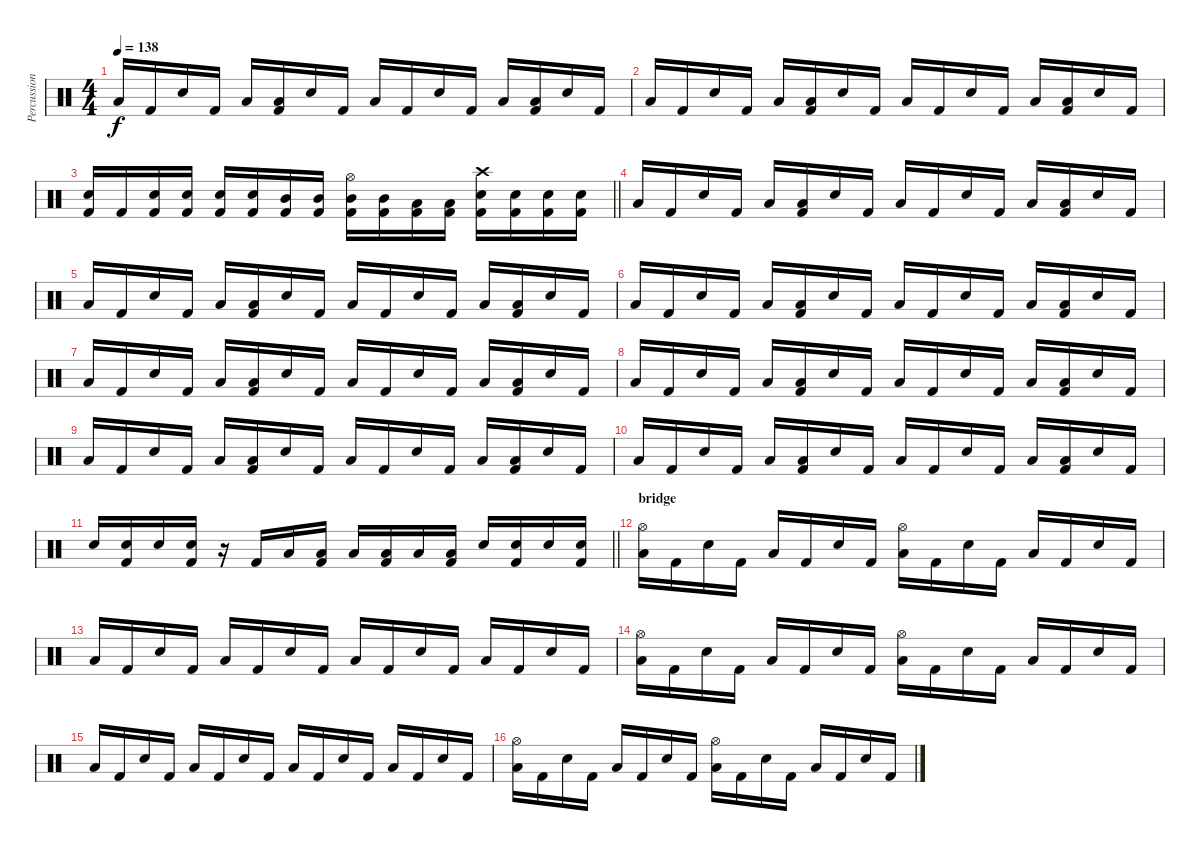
\track ("Percussion" "Percussion") {instrument percussion}
\staff {score}
\articulation defaults
\ts (4 4)
\tempo 138
\clef neutral
\ks c "Low Tom (hit)".16{dy f} "Kick (hit) 2".16 "Snare (hit) 2".16 "Kick (hit) 2".16 "Low Tom (hit)".16
("Low Tom (hit)" "Kick (hit) 2").16 "Snare (hit) 2".16 "Kick (hit) 2".16 "Low Tom (hit)".16 "Kick (hit) 2".16 "Snare (hit) 2".16 "Kick (hit) 2".16 "Low Tom (hit)".16 ("Low Tom (hit)" "Kick (hit) 2").16 "Snare (hit) 2".16 "Kick (hit) 2".16 |
"Low Tom (hit)".16 "Kick (hit) 2".16 "Snare (hit) 2".16 "Kick (hit) 2".16 "Low Tom (hit)".16 ("Low Tom (hit)" "Kick (hit) 2").16 "Snare (hit) 2".16 "Kick (hit) 2".16 "Low Tom (hit)".16 "Kick (hit) 2".16 "Snare (hit) 2".16 "Kick (hit) 2".16 "Low Tom (hit)".16 ("Low Tom (hit)" "Kick (hit) 2").16 "Snare (hit) 2".16 "Kick (hit) 2".16 |
\barLineRight lightlight
("Snare (hit) 2" "Kick (hit) 2").16 "Kick (hit) 2".16 ("Snare (hit) 2" "Kick (hit) 2").16 ("Snare (hit) 2" "Kick (hit) 2").16 ("Snare (hit) 2" "Kick (hit) 2").16 ("Snare (hit) 2" "Kick (hit) 2").16 ("Mid Tom (hit)" "Kick (hit) 2").16 ("Mid Tom (hit)" "Kick (hit) 2").16 ("Hi-Hat (open)" "Mid Tom (hit)" "Kick (hit) 2").16 ("Mid Tom (hit)" "Kick (hit) 2").16 ("Low Tom (hit)" "Kick (hit) 2").16 ("Low Tom (hit)" "Kick (hit) 2").16 ("Crash high (hit)" "Snare (hit) 2" "Kick (hit) 2").16 ("Snare (hit) 2" "Kick (hit) 2").16 ("Snare (hit) 2" "Kick (hit) 2").16 ("Snare (hit) 2" "Kick (hit) 2").16 |
"Low Tom (hit)".16 "Kick (hit) 2".16 "Snare (hit) 2".16 "Kick (hit) 2".16 "Low Tom (hit)".16 ("Low Tom (hit)" "Kick (hit) 2").16 "Snare (hit) 2".16 "Kick (hit) 2".16 "Low Tom (hit)".16 "Kick (hit) 2".16 "Snare (hit) 2".16 "Kick (hit) 2".16 "Low Tom (hit)".16 ("Low Tom (hit)" "Kick (hit) 2").16 "Snare (hit) 2".16 "Kick (hit) 2".16 |
"Low Tom (hit)".16 "Kick (hit) 2".16 "Snare (hit) 2".16 "Kick (hit) 2".16 "Low Tom (hit)".16 ("Low Tom (hit)" "Kick (hit) 2").16 "Snare (hit) 2".16 "Kick (hit) 2".16 "Low Tom (hit)".16 "Kick (hit) 2".16 "Snare (hit) 2".16 "Kick (hit) 2".16 "Low Tom (hit)".16 ("Low Tom (hit)" "Kick (hit) 2").16 "Snare (hit) 2".16 "Kick (hit) 2".16 |
"Low Tom (hit)".16 "Kick (hit) 2".16 "Snare (hit) 2".16 "Kick (hit) 2".16 "Low Tom (hit)".16 ("Low Tom (hit)" "Kick (hit) 2").16 "Snare (hit) 2".16 "Kick (hit) 2".16 "Low Tom (hit)".16 "Kick (hit) 2".16 "Snare (hit) 2".16 "Kick (hit) 2".16 "Low Tom (hit)".16 ("Low Tom (hit)" "Kick (hit) 2").16 "Snare (hit) 2".16 "Kick (hit) 2".16 |
"Low Tom (hit)".16 "Kick (hit) 2".16 "Snare (hit) 2".16 "Kick (hit) 2".16 "Low Tom (hit)".16 ("Low Tom (hit)" "Kick (hit) 2").16 "Snare (hit) 2".16 "Kick (hit) 2".16 "Low Tom (hit)".16 "Kick (hit) 2".16 "Snare (hit) 2".16 "Kick (hit) 2".16 "Low Tom (hit)".16 ("Low Tom (hit)" "Kick (hit) 2").16 "Snare (hit) 2".16 "Kick (hit) 2".16 |
"Low Tom (hit)".16 "Kick (hit) 2".16 "Snare (hit) 2".16 "Kick (hit) 2".16 "Low Tom (hit)".16 ("Low Tom (hit)" "Kick (hit) 2").16 "Snare (hit) 2".16 "Kick (hit) 2".16 "Low Tom (hit)".16 "Kick (hit) 2".16 "Snare (hit) 2".16 "Kick (hit) 2".16 "Low Tom (hit)".16 ("Low Tom (hit)" "Kick (hit) 2").16 "Snare (hit) 2".16 "Kick (hit) 2".16 |
"Low Tom (hit)".16 "Kick (hit) 2".16 "Snare (hit) 2".16 "Kick (hit) 2".16 "Low Tom (hit)".16 ("Low Tom (hit)" "Kick (hit) 2").16 "Snare (hit) 2".16 "Kick (hit) 2".16 "Low Tom (hit)".16 "Kick (hit) 2".16 "Snare (hit) 2".16 "Kick (hit) 2".16 "Low Tom (hit)".16 ("Low Tom (hit)" "Kick (hit) 2").16 "Snare (hit) 2".16 "Kick (hit) 2".16 |
"Low Tom (hit)".16 "Kick (hit) 2".16 "Snare (hit) 2".16 "Kick (hit) 2".16 "Low Tom (hit)".16 ("Low Tom (hit)" "Kick (hit) 2").16 "Snare (hit) 2".16 "Kick (hit) 2".16 "Low Tom (hit)".16 "Kick (hit) 2".16 "Snare (hit) 2".16 "Kick (hit) 2".16 "Low Tom (hit)".16 ("Low Tom (hit)" "Kick (hit) 2").16 "Snare (hit) 2".16 "Kick (hit) 2".16 |
\barLineRight lightlight "Snare (hit) 2".16
("Snare (hit) 2" "Kick (hit) 2").16 "Snare (hit) 2".16 ("Snare (hit) 2" "Kick (hit) 2").16 r.16 "Kick (hit) 2".16 "Low Tom (hit)".16 ("Low Tom (hit)" "Kick (hit) 2").16 "Low Tom (hit)".16 ("Low Tom (hit)" "Kick (hit) 2").16 "Low Tom (hit)".16 ("Low Tom (hit)" "Kick (hit) 2").16 "Snare (hit) 2".16 ("Snare (hit) 2" "Kick (hit) 2").16 "Snare (hit) 2".16 ("Snare (hit) 2" "Kick (hit) 2").16 |
\section ("" "bridge")
("Hi-Hat (open)" "Low Tom (hit)").16 "Kick (hit) 2".16 "Snare (hit) 2".16 "Kick (hit) 2".16 "Low Tom (hit)".16 "Kick (hit) 2".16 "Snare (hit) 2".16 "Kick (hit) 2".16 ("Hi-Hat (open)" "Low Tom (hit)").16 "Kick (hit) 2".16 "Snare (hit) 2".16 "Kick (hit) 2".16 "Low Tom (hit)".16 "Kick (hit) 2".16 "Snare (hit) 2".16 "Kick (hit) 2".16 |
"Low Tom (hit)".16 "Kick (hit) 2".16 "Snare (hit) 2".16 "Kick (hit) 2".16 "Low Tom (hit)".16 "Kick (hit) 2".16 "Snare (hit) 2".16 "Kick (hit) 2".16 "Low Tom (hit)".16 "Kick (hit) 2".16 "Snare (hit) 2".16 "Kick (hit) 2".16 "Low Tom (hit)".16 "Kick (hit) 2".16 "Snare (hit) 2".16 "Kick (hit) 2".16 |
("Hi-Hat (open)" "Low Tom (hit)").16 "Kick (hit) 2".16 "Snare (hit) 2".16 "Kick (hit) 2".16 "Low Tom (hit)".16 "Kick (hit) 2".16 "Snare (hit) 2".16 "Kick (hit) 2".16 ("Hi-Hat (open)" "Low Tom (hit)").16 "Kick (hit) 2".16 "Snare (hit) 2".16 "Kick (hit) 2".16 "Low Tom (hit)".16 "Kick (hit) 2".16 "Snare (hit) 2".16 "Kick (hit) 2".16 |
"Low Tom (hit)".16 "Kick (hit) 2".16 "Snare (hit) 2".16 "Kick (hit) 2".16 "Low Tom (hit)".16 "Kick (hit) 2".16 "Snare (hit) 2".16 "Kick (hit) 2".16 "Low Tom (hit)".16 "Kick (hit) 2".16 "Snare (hit) 2".16 "Kick (hit) 2".16 "Low Tom (hit)".16 "Kick (hit) 2".16 "Snare (hit) 2".16 "Kick (hit) 2".16 |
("Hi-Hat (open)" "Low Tom (hit)").16 "Kick (hit) 2".16 "Snare (hit) 2".16 "Kick (hit) 2".16 "Low Tom (hit)".16 "Kick (hit) 2".16 "Snare (hit) 2".16 "Kick (hit) 2".16 ("Hi-Hat (open)" "Low Tom (hit)").16 "Kick (hit) 2".16 "Snare (hit) 2".16 "Kick (hit) 2".16 "Low Tom (hit)".16 "Kick (hit) 2".16 "Snare (hit) 2".16 "Kick (hit) 2".16
